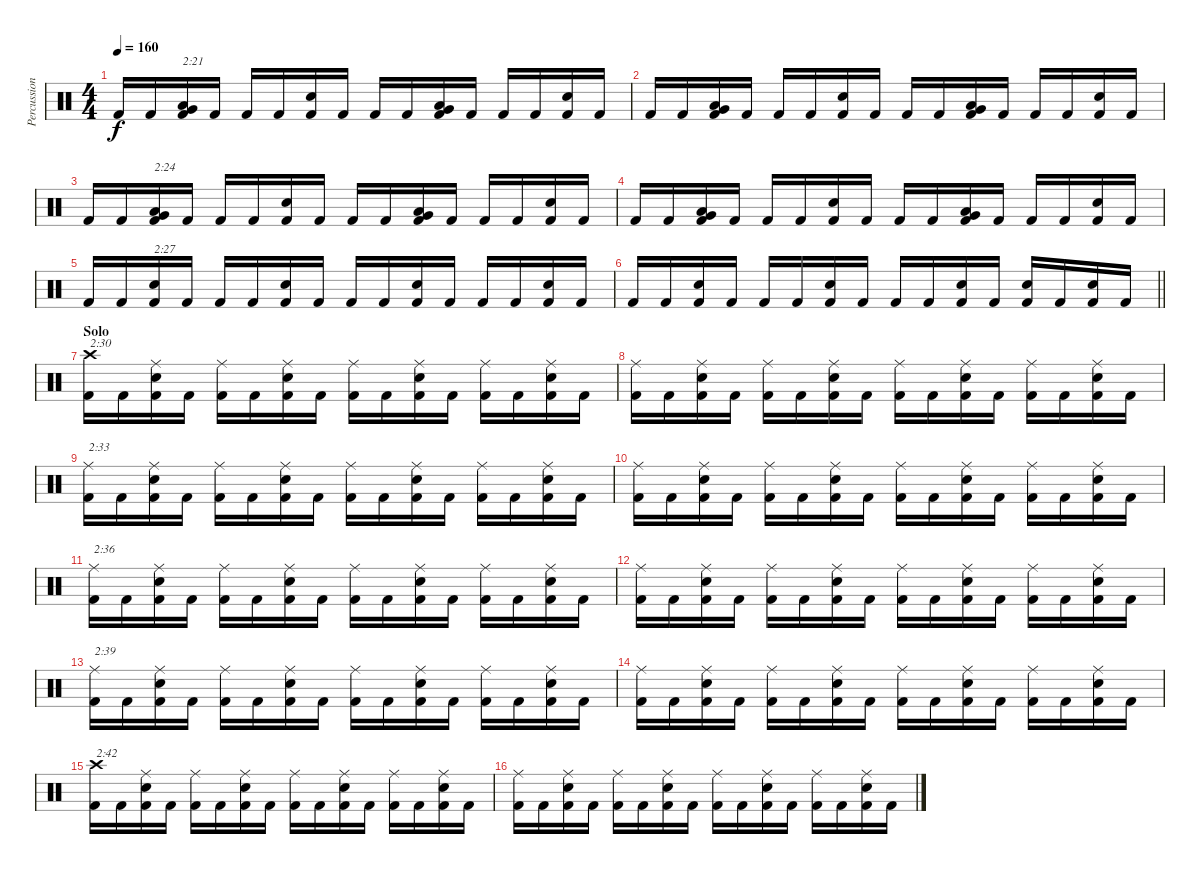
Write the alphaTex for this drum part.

\track ("Percussion" "Percussion") {instrument percussion}
\staff {score}
\articulation defaults
\ts (4 4)
\tempo 160
\clef neutral
\ks c "Kick (hit) 2".16{dy f} "Kick (hit) 2".16
("Very Low Tom (hit)" "Low Floor Tom (hit)" "Kick (hit) 2").16{txt "2:21"} "Kick (hit) 2".16 "Kick (hit) 2".16 "Kick (hit) 2".16 ("Electric Snare (hit)" "Kick (hit) 2").16 "Kick (hit) 2".16 "Kick (hit) 2".16 "Kick (hit) 2".16 ("Very Low Tom (hit)" "Low Floor Tom (hit)" "Kick (hit) 2").16 "Kick (hit) 2".16 "Kick (hit) 2".16 "Kick (hit) 2".16 ("Electric Snare (hit)" "Kick (hit) 2").16 "Kick (hit) 2".16 |
"Kick (hit) 2".16 "Kick (hit) 2".16 ("Very Low Tom (hit)" "Low Floor Tom (hit)" "Kick (hit) 2").16 "Kick (hit) 2".16 "Kick (hit) 2".16 "Kick (hit) 2".16 ("Electric Snare (hit)" "Kick (hit) 2").16 "Kick (hit) 2".16 "Kick (hit) 2".16 "Kick (hit) 2".16 ("Very Low Tom (hit)" "Low Floor Tom (hit)" "Kick (hit) 2").16 "Kick (hit) 2".16 "Kick (hit) 2".16 "Kick (hit) 2".16 ("Electric Snare (hit)" "Kick (hit) 2").16 "Kick (hit) 2".16 |
"Kick (hit) 2".16 "Kick (hit) 2".16 ("Very Low Tom (hit)" "Low Floor Tom (hit)" "Kick (hit) 2").16{txt "2:24"} "Kick (hit) 2".16 "Kick (hit) 2".16 "Kick (hit) 2".16 ("Electric Snare (hit)" "Kick (hit) 2").16 "Kick (hit) 2".16 "Kick (hit) 2".16 "Kick (hit) 2".16 ("Very Low Tom (hit)" "Low Floor Tom (hit)" "Kick (hit) 2").16 "Kick (hit) 2".16 "Kick (hit) 2".16 "Kick (hit) 2".16 ("Electric Snare (hit)" "Kick (hit) 2").16 "Kick (hit) 2".16 |
"Kick (hit) 2".16 "Kick (hit) 2".16 ("Very Low Tom (hit)" "Low Floor Tom (hit)" "Kick (hit) 2").16 "Kick (hit) 2".16 "Kick (hit) 2".16 "Kick (hit) 2".16 ("Electric Snare (hit)" "Kick (hit) 2").16 "Kick (hit) 2".16 "Kick (hit) 2".16 "Kick (hit) 2".16 ("Very Low Tom (hit)" "Low Floor Tom (hit)" "Kick (hit) 2").16 "Kick (hit) 2".16 "Kick (hit) 2".16 "Kick (hit) 2".16 ("Electric Snare (hit)" "Kick (hit) 2").16 "Kick (hit) 2".16 |
"Kick (hit) 2".16 "Kick (hit) 2".16 ("Electric Snare (hit)" "Kick (hit) 2").16{txt "2:27"} "Kick (hit) 2".16 "Kick (hit) 2".16 "Kick (hit) 2".16 ("Electric Snare (hit)" "Kick (hit) 2").16 "Kick (hit) 2".16 "Kick (hit) 2".16 "Kick (hit) 2".16 ("Electric Snare (hit)" "Kick (hit) 2").16 "Kick (hit) 2".16 "Kick (hit) 2".16 "Kick (hit) 2".16 ("Electric Snare (hit)" "Kick (hit) 2").16 "Kick (hit) 2".16 |
\barLineRight lightlight "Kick (hit) 2".16 "Kick (hit) 2".16
("Electric Snare (hit)" "Kick (hit) 2").16 "Kick (hit) 2".16 "Kick (hit) 2".16 "Kick (hit) 2".16 ("Electric Snare (hit)" "Kick (hit) 2").16 "Kick (hit) 2".16 "Kick (hit) 2".16 "Kick (hit) 2".16 ("Electric Snare (hit)" "Kick (hit) 2").16 "Kick (hit) 2".16 ("Electric Snare (hit)" "Kick (hit) 2").16 "Kick (hit) 2".16 ("Electric Snare (hit)" "Kick (hit) 2").16 "Kick (hit) 2".16 |
\section ("" "Solo")
("Crash high (hit)" "Kick (hit) 2").16{txt "2:30"} "Kick (hit) 2".16 ("Ride (middle)" "Electric Snare (hit)" "Kick (hit) 2").16 "Kick (hit) 2".16 ("Ride (middle)" "Kick (hit) 2").16 "Kick (hit) 2".16 ("Ride (middle)" "Electric Snare (hit)" "Kick (hit) 2").16 "Kick (hit) 2".16 ("Ride (middle)" "Kick (hit) 2").16 "Kick (hit) 2".16 ("Ride (middle)" "Electric Snare (hit)" "Kick (hit) 2").16 "Kick (hit) 2".16 ("Ride (middle)" "Kick (hit) 2").16 "Kick (hit) 2".16 ("Ride (middle)" "Electric Snare (hit)" "Kick (hit) 2").16 "Kick (hit) 2".16 |
("Ride (middle)" "Kick (hit) 2").16 "Kick (hit) 2".16 ("Ride (middle)" "Electric Snare (hit)" "Kick (hit) 2").16 "Kick (hit) 2".16 ("Ride (middle)" "Kick (hit) 2").16 "Kick (hit) 2".16 ("Ride (middle)" "Electric Snare (hit)" "Kick (hit) 2").16 "Kick (hit) 2".16 ("Ride (middle)" "Kick (hit) 2").16 "Kick (hit) 2".16 ("Ride (middle)" "Electric Snare (hit)" "Kick (hit) 2").16 "Kick (hit) 2".16 ("Ride (middle)" "Kick (hit) 2").16 "Kick (hit) 2".16 ("Ride (middle)" "Electric Snare (hit)" "Kick (hit) 2").16 "Kick (hit) 2".16 |
("Ride (middle)" "Kick (hit) 2").16{txt "2:33"} "Kick (hit) 2".16 ("Ride (middle)" "Electric Snare (hit)" "Kick (hit) 2").16 "Kick (hit) 2".16 ("Ride (middle)" "Kick (hit) 2").16 "Kick (hit) 2".16 ("Ride (middle)" "Electric Snare (hit)" "Kick (hit) 2").16 "Kick (hit) 2".16 ("Ride (middle)" "Kick (hit) 2").16 "Kick (hit) 2".16 ("Ride (middle)" "Electric Snare (hit)" "Kick (hit) 2").16 "Kick (hit) 2".16 ("Ride (middle)" "Kick (hit) 2").16 "Kick (hit) 2".16 ("Ride (middle)" "Electric Snare (hit)" "Kick (hit) 2").16 "Kick (hit) 2".16 |
("Ride (middle)" "Kick (hit) 2").16 "Kick (hit) 2".16 ("Ride (middle)" "Electric Snare (hit)" "Kick (hit) 2").16 "Kick (hit) 2".16 ("Ride (middle)" "Kick (hit) 2").16 "Kick (hit) 2".16 ("Ride (middle)" "Electric Snare (hit)" "Kick (hit) 2").16 "Kick (hit) 2".16 ("Ride (middle)" "Kick (hit) 2").16 "Kick (hit) 2".16 ("Ride (middle)" "Electric Snare (hit)" "Kick (hit) 2").16 "Kick (hit) 2".16 ("Ride (middle)" "Kick (hit) 2").16 "Kick (hit) 2".16 ("Ride (middle)" "Electric Snare (hit)" "Kick (hit) 2").16 "Kick (hit) 2".16 |
("Ride (middle)" "Kick (hit) 2").16{txt "2:36"} "Kick (hit) 2".16 ("Ride (middle)" "Electric Snare (hit)" "Kick (hit) 2").16 "Kick (hit) 2".16 ("Ride (middle)" "Kick (hit) 2").16 "Kick (hit) 2".16 ("Ride (middle)" "Electric Snare (hit)" "Kick (hit) 2").16 "Kick (hit) 2".16 ("Ride (middle)" "Kick (hit) 2").16 "Kick (hit) 2".16 ("Ride (middle)" "Electric Snare (hit)" "Kick (hit) 2").16 "Kick (hit) 2".16 ("Ride (middle)" "Kick (hit) 2").16 "Kick (hit) 2".16 ("Ride (middle)" "Electric Snare (hit)" "Kick (hit) 2").16 "Kick (hit) 2".16 |
("Ride (middle)" "Kick (hit) 2").16 "Kick (hit) 2".16 ("Ride (middle)" "Electric Snare (hit)" "Kick (hit) 2").16 "Kick (hit) 2".16 ("Ride (middle)" "Kick (hit) 2").16 "Kick (hit) 2".16 ("Ride (middle)" "Electric Snare (hit)" "Kick (hit) 2").16 "Kick (hit) 2".16 ("Ride (middle)" "Kick (hit) 2").16 "Kick (hit) 2".16 ("Ride (middle)" "Electric Snare (hit)" "Kick (hit) 2").16 "Kick (hit) 2".16 ("Ride (middle)" "Kick (hit) 2").16 "Kick (hit) 2".16 ("Ride (middle)" "Electric Snare (hit)" "Kick (hit) 2").16 "Kick (hit) 2".16 |
("Ride (middle)" "Kick (hit) 2").16{txt "2:39"} "Kick (hit) 2".16 ("Ride (middle)" "Electric Snare (hit)" "Kick (hit) 2").16 "Kick (hit) 2".16 ("Ride (middle)" "Kick (hit) 2").16 "Kick (hit) 2".16 ("Ride (middle)" "Electric Snare (hit)" "Kick (hit) 2").16 "Kick (hit) 2".16 ("Ride (middle)" "Kick (hit) 2").16 "Kick (hit) 2".16 ("Ride (middle)" "Electric Snare (hit)" "Kick (hit) 2").16 "Kick (hit) 2".16 ("Ride (middle)" "Kick (hit) 2").16 "Kick (hit) 2".16 ("Ride (middle)" "Electric Snare (hit)" "Kick (hit) 2").16 "Kick (hit) 2".16 |
("Ride (middle)" "Kick (hit) 2").16 "Kick (hit) 2".16 ("Ride (middle)" "Electric Snare (hit)" "Kick (hit) 2").16 "Kick (hit) 2".16 ("Ride (middle)" "Kick (hit) 2").16 "Kick (hit) 2".16 ("Ride (middle)" "Electric Snare (hit)" "Kick (hit) 2").16 "Kick (hit) 2".16 ("Ride (middle)" "Kick (hit) 2").16 "Kick (hit) 2".16 ("Ride (middle)" "Electric Snare (hit)" "Kick (hit) 2").16 "Kick (hit) 2".16 ("Ride (middle)" "Kick (hit) 2").16 "Kick (hit) 2".16 ("Ride (middle)" "Electric Snare (hit)" "Kick (hit) 2").16 "Kick (hit) 2".16 |
("Crash high (hit)" "Kick (hit) 2").16{txt "2:42"} "Kick (hit) 2".16 ("Ride (middle)" "Electric Snare (hit)" "Kick (hit) 2").16 "Kick (hit) 2".16 ("Ride (middle)" "Kick (hit) 2").16 "Kick (hit) 2".16 ("Ride (middle)" "Electric Snare (hit)" "Kick (hit) 2").16 "Kick (hit) 2".16 ("Ride (middle)" "Kick (hit) 2").16 "Kick (hit) 2".16 ("Ride (middle)" "Electric Snare (hit)" "Kick (hit) 2").16 "Kick (hit) 2".16 ("Ride (middle)" "Kick (hit) 2").16 "Kick (hit) 2".16 ("Ride (middle)" "Electric Snare (hit)" "Kick (hit) 2").16 "Kick (hit) 2".16 |
("Ride (middle)" "Kick (hit) 2").16 "Kick (hit) 2".16 ("Ride (middle)" "Electric Snare (hit)" "Kick (hit) 2").16 "Kick (hit) 2".16 ("Ride (middle)" "Kick (hit) 2").16 "Kick (hit) 2".16 ("Ride (middle)" "Electric Snare (hit)" "Kick (hit) 2").16 "Kick (hit) 2".16 ("Ride (middle)" "Kick (hit) 2").16 "Kick (hit) 2".16 ("Ride (middle)" "Electric Snare (hit)" "Kick (hit) 2").16 "Kick (hit) 2".16 ("Ride (middle)" "Kick (hit) 2").16 "Kick (hit) 2".16 ("Ride (middle)" "Electric Snare (hit)" "Kick (hit) 2").16 "Kick (hit) 2".16
